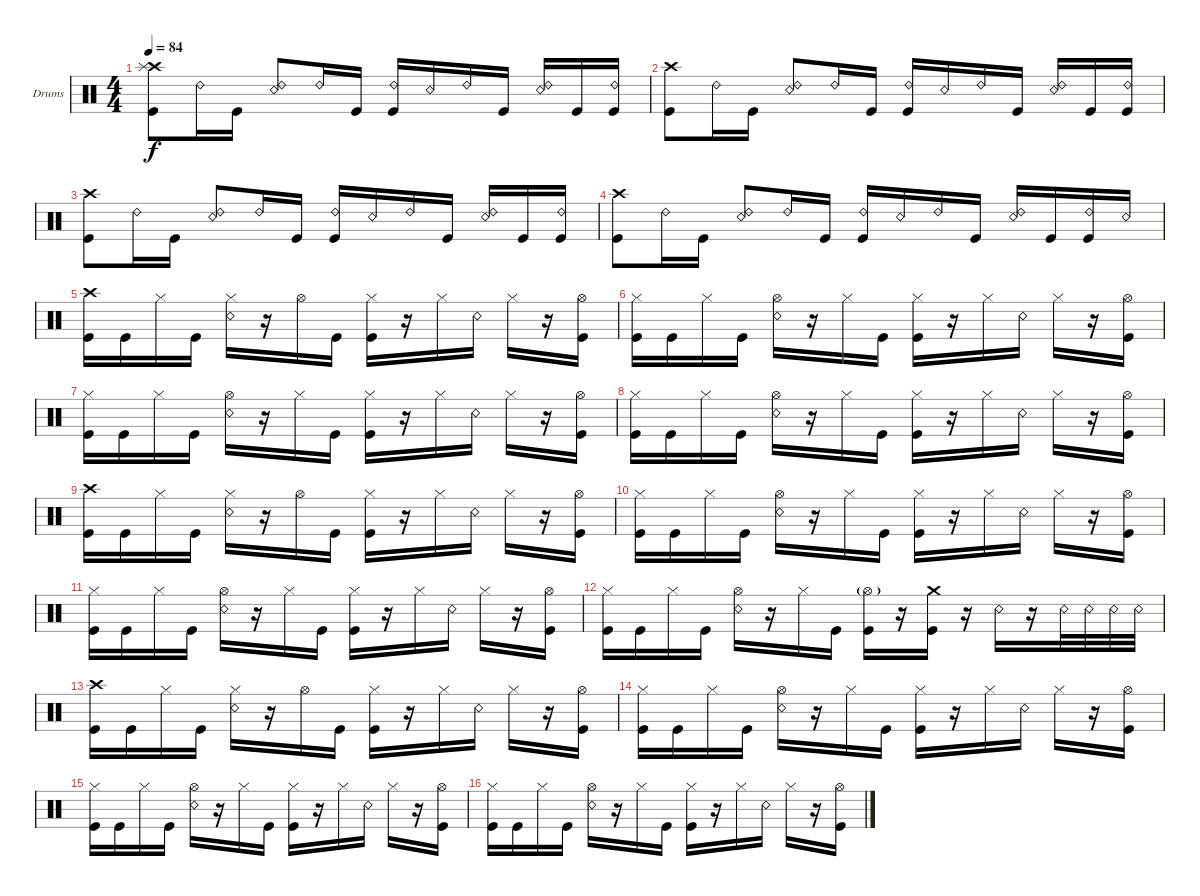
\defaultSystemsLayout 4
\bracketExtendMode groupsimilarinstruments
\firstSystemTrackNameOrientation horizontal
\otherSystemsTrackNameOrientation horizontal
\track ("Drumkit" "Drums") {instrument percussion}
\staff {score}
\articulation defaults
\ts (4 4)
\tempo 84
\clef neutral
\scale
0.333333
\ks c
("Kick (hit)" "Crash high (hit)" "Splash (hit)").8{dy f} "Ride (bell) 2".16 "Kick (hit)".16 ("Snare (rim shot)" "Ride (bell) 2").8 "Ride (bell) 2".16 "Kick (hit)".16 ("Kick (hit)" "Ride (bell) 2").16 "Snare (rim shot)".16 "Ride (bell) 2".16 "Kick (hit)".16 ("Snare (rim shot)" "Ride (bell) 2").16 "Kick (hit)".16 ("Kick (hit)" "Ride (bell) 2").16 |
\scale
0.333333 ("Kick (hit)" "Crash high (hit)").8 "Ride (bell) 2".16 "Kick (hit)".16 ("Snare (rim shot)" "Ride (bell) 2").8 "Ride (bell) 2".16 "Kick (hit)".16 ("Kick (hit)" "Ride (bell) 2").16 "Snare (rim shot)".16 "Ride (bell) 2".16 "Kick (hit)".16 ("Snare (rim shot)" "Ride (bell) 2").16 "Kick (hit)".16 ("Kick (hit)" "Ride (bell) 2").16 |
\scale
0.333333 ("Kick (hit)" "Crash high (hit)").8 "Ride (bell) 2".16 "Kick (hit)".16 ("Snare (rim shot)" "Ride (bell) 2").8 "Ride (bell) 2".16 "Kick (hit)".16 ("Kick (hit)" "Ride (bell) 2").16 "Snare (rim shot)".16 "Ride (bell) 2".16 "Kick (hit)".16 ("Snare (rim shot)" "Ride (bell) 2").16 "Kick (hit)".16 ("Kick (hit)" "Ride (bell) 2").16 |
\scale
0.333333 ("Kick (hit)" "Crash high (hit)").8 "Ride (bell) 2".16 "Kick (hit)".16 ("Snare (rim shot)" "Ride (bell) 2").8 "Ride (bell) 2".16 "Kick (hit)".16 ("Kick (hit)" "Ride (bell) 2").16 "Snare (rim shot)".16 "Ride (bell) 2".16 "Kick (hit)".16 ("Snare (rim shot)" "Ride (bell) 2").16 "Kick (hit)".16 ("Kick (hit)" "Ride (bell) 2").16 "Snare (rim shot)".16 |
\scale
0.333333 ("Kick (hit)" "Crash high (hit)").16 "Kick (hit)".16 "Hi-Hat (closed)".16 "Kick (hit)".16 ("Snare (rim shot)" "Hi-Hat (closed)").16 r.16 "Hi-Hat (open)".16 "Kick (hit)".16 ("Kick (hit)" "Hi-Hat (closed)").16 r.16 "Hi-Hat (closed)".16 "Snare (rim shot)".16 "Hi-Hat (closed)".16 r.16 ("Kick (hit)" "Hi-Hat (open)").16 |
\scale
0.333333 ("Kick (hit)" "Hi-Hat (closed)").16 "Kick (hit)".16 "Hi-Hat (closed)".16 "Kick (hit)".16 ("Snare (rim shot)" "Hi-Hat (open)").16 r.16 "Hi-Hat (closed)".16 "Kick (hit)".16 ("Kick (hit)" "Hi-Hat (closed)").16 r.16 "Hi-Hat (closed)".16 "Snare (rim shot)".16 "Hi-Hat (closed)".16 r.16 ("Kick (hit)" "Hi-Hat (open)").16 |
\scale
0.333333 ("Kick (hit)" "Hi-Hat (closed)").16 "Kick (hit)".16 "Hi-Hat (closed)".16 "Kick (hit)".16 ("Snare (rim shot)" "Hi-Hat (open)").16 r.16 "Hi-Hat (closed)".16 "Kick (hit)".16 ("Kick (hit)" "Hi-Hat (closed)").16 r.16 "Hi-Hat (closed)".16 "Snare (rim shot)".16 "Hi-Hat (closed)".16 r.16 ("Kick (hit)" "Hi-Hat (open)").16 |
\scale
0.333333 ("Kick (hit)" "Hi-Hat (closed)").16 "Kick (hit)".16 "Hi-Hat (closed)".16 "Kick (hit)".16 ("Snare (rim shot)" "Hi-Hat (open)").16 r.16 "Hi-Hat (closed)".16 "Kick (hit)".16 ("Kick (hit)" "Hi-Hat (closed)").16 r.16 "Hi-Hat (closed)".16 "Snare (rim shot)".16 "Hi-Hat (closed)".16 r.16 ("Kick (hit)" "Hi-Hat (open)").16 |
\scale
0.333333 ("Kick (hit)" "Crash high (hit)").16 "Kick (hit)".16 "Hi-Hat (closed)".16 "Kick (hit)".16 ("Snare (rim shot)" "Hi-Hat (closed)").16 r.16 "Hi-Hat (open)".16 "Kick (hit)".16 ("Kick (hit)" "Hi-Hat (closed)").16 r.16 "Hi-Hat (closed)".16 "Snare (rim shot)".16 "Hi-Hat (closed)".16 r.16 ("Kick (hit)" "Hi-Hat (open)").16 |
\scale
0.333333 ("Kick (hit)" "Hi-Hat (closed)").16 "Kick (hit)".16 "Hi-Hat (closed)".16 "Kick (hit)".16 ("Snare (rim shot)" "Hi-Hat (open)").16 r.16 "Hi-Hat (closed)".16 "Kick (hit)".16 ("Kick (hit)" "Hi-Hat (closed)").16 r.16 "Hi-Hat (closed)".16 "Snare (rim shot)".16 "Hi-Hat (closed)".16 r.16 ("Kick (hit)" "Hi-Hat (open)").16 |
\scale
0.333333 ("Kick (hit)" "Hi-Hat (closed)").16 "Kick (hit)".16 "Hi-Hat (closed)".16 "Kick (hit)".16 ("Snare (rim shot)" "Hi-Hat (open)").16 r.16 "Hi-Hat (closed)".16 "Kick (hit)".16 ("Kick (hit)" "Hi-Hat (closed)").16 r.16 "Hi-Hat (closed)".16 "Snare (rim shot)".16 "Hi-Hat (closed)".16 r.16 ("Kick (hit)" "Hi-Hat (open)").16 |
\scale
0.333333 ("Kick (hit)" "Hi-Hat (closed)").16 "Kick (hit)".16 "Hi-Hat (closed)".16 "Kick (hit)".16 ("Snare (rim shot)" "Hi-Hat (open)").16 r.16 "Hi-Hat (closed)".16 "Kick (hit)".16 ("Kick (hit)" "Hi-Hat (open)"{g}).16 r.16 ("Kick (hit)" "Crash medium (hit)").16 r.16 "Snare (rim shot)".16 r.16 "Snare (rim shot)".32 "Snare (rim shot)".32 "Snare (rim shot)".32 "Snare (rim shot)".32 |
\scale
0.333333 ("Kick (hit)" "Crash high (hit)").16 "Kick (hit)".16 "Hi-Hat (closed)".16 "Kick (hit)".16 ("Snare (rim shot)" "Hi-Hat (closed)").16 r.16 "Hi-Hat (open)".16 "Kick (hit)".16 ("Kick (hit)" "Hi-Hat (closed)").16 r.16 "Hi-Hat (closed)".16 "Snare (rim shot)".16 "Hi-Hat (closed)".16 r.16 ("Kick (hit)" "Hi-Hat (open)").16 |
\scale
0.333333 ("Kick (hit)" "Hi-Hat (closed)").16 "Kick (hit)".16 "Hi-Hat (closed)".16 "Kick (hit)".16 ("Snare (rim shot)" "Hi-Hat (open)").16 r.16 "Hi-Hat (closed)".16 "Kick (hit)".16 ("Kick (hit)" "Hi-Hat (closed)").16 r.16 "Hi-Hat (closed)".16 "Snare (rim shot)".16 "Hi-Hat (closed)".16 r.16 ("Kick (hit)" "Hi-Hat (open)").16 |
\scale
0.333333 ("Kick (hit)" "Hi-Hat (closed)").16 "Kick (hit)".16 "Hi-Hat (closed)".16 "Kick (hit)".16 ("Snare (rim shot)" "Hi-Hat (open)").16 r.16 "Hi-Hat (closed)".16 "Kick (hit)".16 ("Kick (hit)" "Hi-Hat (closed)").16 r.16 "Hi-Hat (closed)".16 "Snare (rim shot)".16 "Hi-Hat (closed)".16 r.16 ("Kick (hit)" "Hi-Hat (open)").16 |
\scale
0.333333 ("Kick (hit)" "Hi-Hat (closed)").16 "Kick (hit)".16 "Hi-Hat (closed)".16 "Kick (hit)".16 ("Snare (rim shot)" "Hi-Hat (open)").16 r.16 "Hi-Hat (closed)".16 "Kick (hit)".16 ("Kick (hit)" "Hi-Hat (closed)").16 r.16 "Hi-Hat (closed)".16 "Snare (rim shot)".16 "Hi-Hat (closed)".16 r.16 ("Kick (hit)" "Hi-Hat (open)").16
